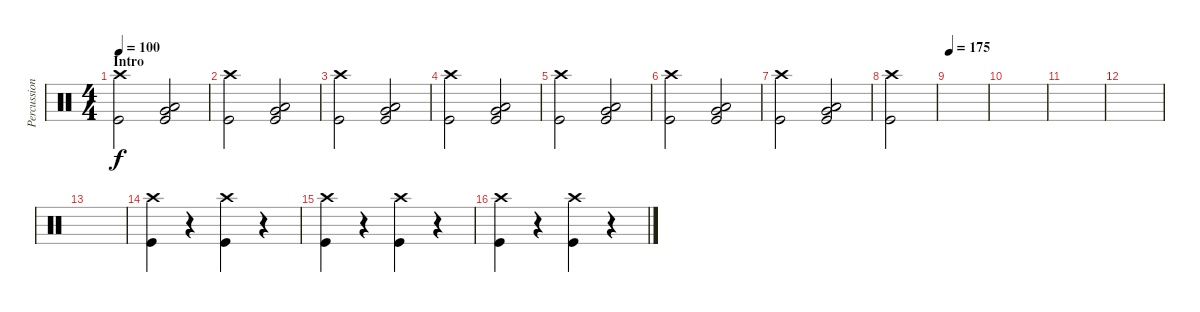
\track ("Percussion" "Percussion") {instrument percussion}
\staff {score}
\articulation defaults
\ts (4 4)
\section ("" "Intro")
\tempo 100
\clef neutral
\ks c
("Kick (hit)" "Crash high (hit)").2{dy f} ("Very Low Tom (hit)" "Low Floor Tom (hit)" "Kick (hit)").2 |
("Kick (hit)" "Crash high (hit)").2 ("Very Low Tom (hit)" "Low Floor Tom (hit)" "Kick (hit)").2 |
("Kick (hit)" "Crash high (hit)").2 ("Very Low Tom (hit)" "Low Floor Tom (hit)" "Kick (hit)").2 |
("Kick (hit)" "Crash high (hit)").2 ("Very Low Tom (hit)" "Low Floor Tom (hit)" "Kick (hit)").2 |
("Kick (hit)" "Crash high (hit)").2 ("Very Low Tom (hit)" "Low Floor Tom (hit)" "Kick (hit)").2 |
("Kick (hit)" "Crash high (hit)").2 ("Very Low Tom (hit)" "Low Floor Tom (hit)" "Kick (hit)").2 |
("Kick (hit)" "Crash high (hit)").2 ("Very Low Tom (hit)" "Low Floor Tom (hit)" "Kick (hit)").2 |
("Kick (hit)" "Crash high (hit)").2 |
\tempo 175
|
|
|
|
|
("Crash high (hit)" "Kick (hit)").4 r.4 ("Crash high (hit)" "Kick (hit)").4 r.4 |
("Crash high (hit)" "Kick (hit)").4 r.4 ("Kick (hit)" "Crash high (hit)").4 r.4 |
("Crash high (hit)" "Kick (hit)").4 r.4 ("Crash high (hit)" "Kick (hit)").4 r.4
